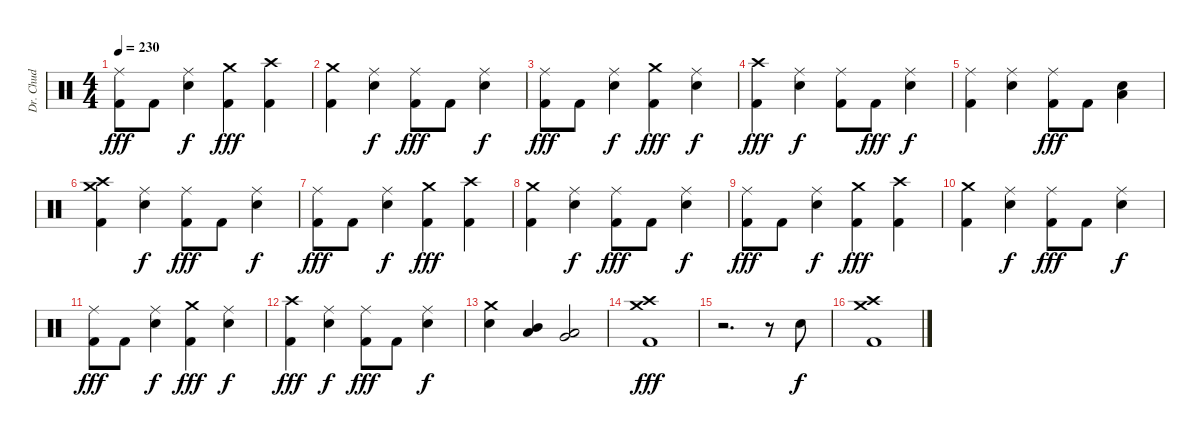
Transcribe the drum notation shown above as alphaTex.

\track ("Dr. Chud" "Dr. Chud") {instrument percussion}
\staff {score}
\articulation defaults
\ts (4 4)
\tempo 230
\clef neutral
\ks c
("Ride (middle)" "Kick (hit) 2").8{dy fff} "Kick (hit) 2".8 ("Ride (middle)" "Snare (hit) 2").4{dy f} ("Crash medium (hit)" "Kick (hit) 2").4{dy fff} ("Crash high (hit)" "Kick (hit) 2").4 |
("Crash medium (hit)" "Kick (hit) 2").4 ("Ride (middle)" "Snare (hit) 2").4{dy f} ("Ride (middle)" "Kick (hit) 2").8{dy fff} "Kick (hit) 2".8 ("Ride (middle)" "Snare (hit) 2").4{dy f} |
("Ride (middle)" "Kick (hit) 2").8{dy fff} "Kick (hit) 2".8 ("Ride (middle)" "Snare (hit) 2").4{dy f} ("Crash medium (hit)" "Kick (hit) 2").4{dy fff} ("Ride (middle)" "Snare (hit) 2").4{dy f} |
("Crash high (hit)" "Kick (hit) 2").4{dy fff} ("Ride (middle)" "Snare (hit) 2").4{dy f} ("Ride (middle)" "Kick (hit) 2").8 "Kick (hit) 2".8{dy fff} ("Ride (middle)" "Snare (hit) 2").4{dy f} |
("Ride (middle)" "Kick (hit) 2").4 ("Ride (middle)" "Snare (hit) 2").4 ("Ride (middle)" "Kick (hit) 2").8{dy fff} "Kick (hit) 2".8 ("Low Tom (hit)" "Snare (hit) 2").4 |
("Crash high (hit)" "Crash medium (hit)" "Kick (hit) 2").4 ("Ride (middle)" "Snare (hit) 2").4{dy f} ("Ride (middle)" "Kick (hit) 2").8{dy fff} "Kick (hit) 2".8 ("Ride (middle)" "Snare (hit) 2").4{dy f} |
("Ride (middle)" "Kick (hit) 2").8{dy fff} "Kick (hit) 2".8 ("Ride (middle)" "Snare (hit) 2").4{dy f} ("Crash medium (hit)" "Kick (hit) 2").4{dy fff} ("Crash high (hit)" "Kick (hit) 2").4 |
("Crash medium (hit)" "Kick (hit) 2").4 ("Ride (middle)" "Snare (hit) 2").4{dy f} ("Ride (middle)" "Kick (hit) 2").8{dy fff} "Kick (hit) 2".8 ("Ride (middle)" "Snare (hit) 2").4{dy f} |
("Ride (middle)" "Kick (hit) 2").8{dy fff} "Kick (hit) 2".8 ("Ride (middle)" "Snare (hit) 2").4{dy f} ("Crash medium (hit)" "Kick (hit) 2").4{dy fff} ("Crash high (hit)" "Kick (hit) 2").4 |
("Crash medium (hit)" "Kick (hit) 2").4 ("Ride (middle)" "Snare (hit) 2").4{dy f} ("Ride (middle)" "Kick (hit) 2").8{dy fff} "Kick (hit) 2".8 ("Ride (middle)" "Snare (hit) 2").4{dy f} |
("Ride (middle)" "Kick (hit) 2").8{dy fff} "Kick (hit) 2".8 ("Ride (middle)" "Snare (hit) 2").4{dy f} ("Crash medium (hit)" "Kick (hit) 2").4{dy fff} ("Ride (middle)" "Snare (hit) 2").4{dy f} |
("Crash high (hit)" "Kick (hit) 2").4{dy fff} ("Ride (middle)" "Snare (hit) 2").4{dy f} ("Ride (middle)" "Kick (hit) 2").8{dy fff} "Kick (hit) 2".8 ("Ride (middle)" "Snare (hit) 2").4{dy f} |
("Crash medium (hit)" "Snare (hit) 2").4 ("Mid Tom (hit)" "Low Tom (hit)").4 ("Low Tom (hit)" "Very Low Tom (hit)").2 |
("Crash high (hit)" "Crash medium (hit)" "Kick (hit) 2").1{dy fff} |
r.2{d} r.8 "Snare (hit) 2".8{dy f} |
("Crash high (hit)" "Crash medium (hit)" "Kick (hit) 2").1
